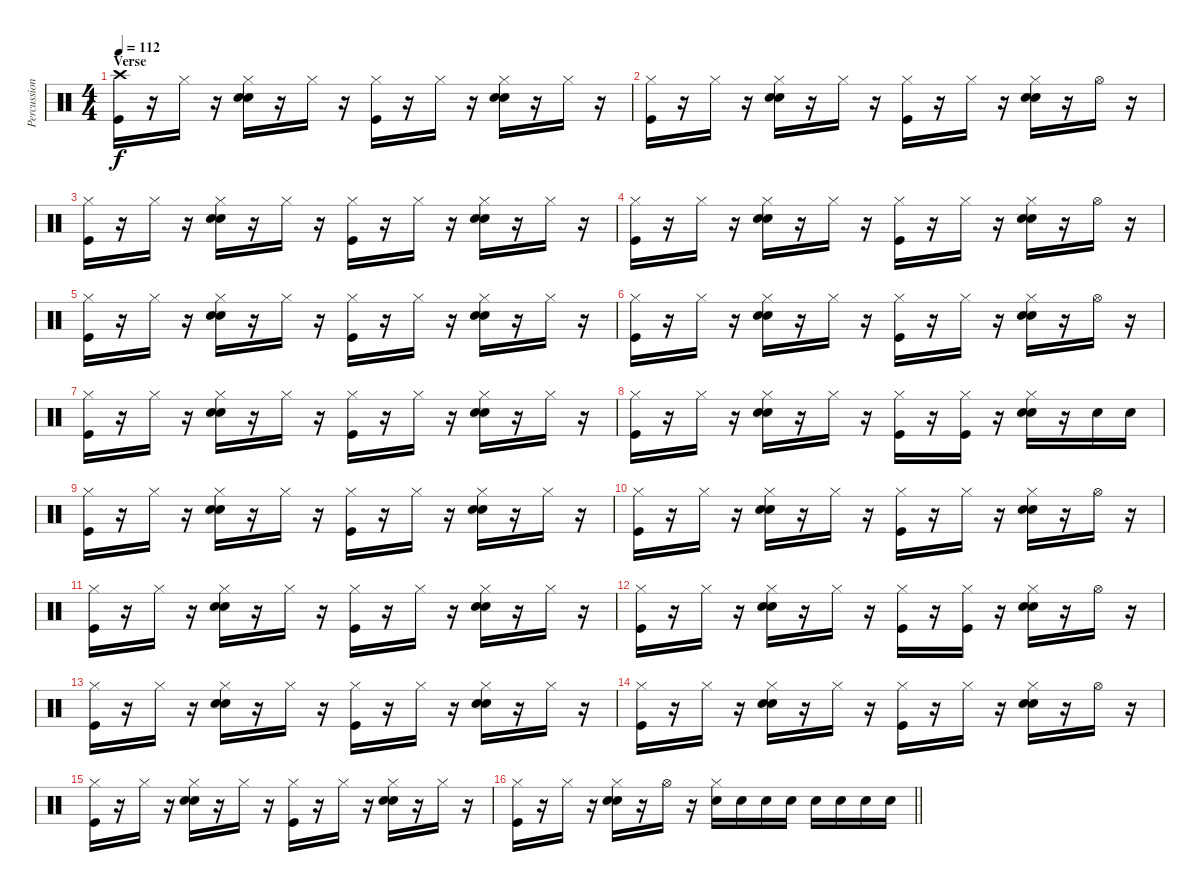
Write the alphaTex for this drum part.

\track ("Percussion" "Percussion") {instrument percussion}
\staff {score}
\articulation defaults
\ts (4 4)
\section ("" "Verse")
\tempo 112
\clef neutral
\ks c
("Crash high (hit)" "Kick (hit)").16{dy f} r.16 "Hi-Hat (closed)".16 r.16 ("Hi-Hat (closed)" "Hand Clap (hit)" "Snare (hit) 2").16 r.16 "Hi-Hat (closed)".16 r.16 ("Hi-Hat (closed)" "Kick (hit)").16 r.16 "Hi-Hat (closed)".16 r.16 ("Hi-Hat (closed)" "Hand Clap (hit)" "Snare (hit) 2").16 r.16 "Hi-Hat (closed)".16 r.16 |
("Hi-Hat (closed)" "Kick (hit)").16 r.16 "Hi-Hat (closed)".16 r.16 ("Hi-Hat (closed)" "Hand Clap (hit)" "Snare (hit) 2").16 r.16 "Hi-Hat (closed)".16 r.16 ("Hi-Hat (closed)" "Kick (hit)").16 r.16 "Hi-Hat (closed)".16 r.16 ("Hi-Hat (closed)" "Hand Clap (hit)" "Snare (hit) 2").16 r.16 "Hi-Hat (open)".16 r.16 |
("Hi-Hat (closed)" "Kick (hit)").16 r.16 "Hi-Hat (closed)".16 r.16 ("Hi-Hat (closed)" "Hand Clap (hit)" "Snare (hit) 2").16 r.16 "Hi-Hat (closed)".16 r.16 ("Hi-Hat (closed)" "Kick (hit)").16 r.16 "Hi-Hat (closed)".16 r.16 ("Hi-Hat (closed)" "Hand Clap (hit)" "Snare (hit) 2").16 r.16 "Hi-Hat (closed)".16 r.16 |
("Hi-Hat (closed)" "Kick (hit)").16 r.16 "Hi-Hat (closed)".16 r.16 ("Hi-Hat (closed)" "Hand Clap (hit)" "Snare (hit) 2").16 r.16 "Hi-Hat (closed)".16 r.16 ("Hi-Hat (closed)" "Kick (hit)").16 r.16 "Hi-Hat (closed)".16 r.16 ("Hi-Hat (closed)" "Hand Clap (hit)" "Snare (hit) 2").16 r.16 "Hi-Hat (open)".16 r.16 |
("Hi-Hat (closed)" "Kick (hit)").16 r.16 "Hi-Hat (closed)".16 r.16 ("Hi-Hat (closed)" "Hand Clap (hit)" "Snare (hit) 2").16 r.16 "Hi-Hat (closed)".16 r.16 ("Hi-Hat (closed)" "Kick (hit)").16 r.16 "Hi-Hat (closed)".16 r.16 ("Hi-Hat (closed)" "Hand Clap (hit)" "Snare (hit) 2").16 r.16 "Hi-Hat (closed)".16 r.16 |
("Hi-Hat (closed)" "Kick (hit)").16 r.16 "Hi-Hat (closed)".16 r.16 ("Hi-Hat (closed)" "Hand Clap (hit)" "Snare (hit) 2").16 r.16 "Hi-Hat (closed)".16 r.16 ("Hi-Hat (closed)" "Kick (hit)").16 r.16 "Hi-Hat (closed)".16 r.16 ("Hi-Hat (closed)" "Hand Clap (hit)" "Snare (hit) 2").16 r.16 "Hi-Hat (open)".16 r.16 |
("Hi-Hat (closed)" "Kick (hit)").16 r.16 "Hi-Hat (closed)".16 r.16 ("Hi-Hat (closed)" "Hand Clap (hit)" "Snare (hit) 2").16 r.16 "Hi-Hat (closed)".16 r.16 ("Hi-Hat (closed)" "Kick (hit)").16 r.16 "Hi-Hat (closed)".16 r.16 ("Hi-Hat (closed)" "Hand Clap (hit)" "Snare (hit) 2").16 r.16 "Hi-Hat (closed)".16 r.16 |
("Hi-Hat (closed)" "Kick (hit)").16 r.16 "Hi-Hat (closed)".16 r.16 ("Hi-Hat (closed)" "Hand Clap (hit)" "Snare (hit) 2").16 r.16 "Hi-Hat (closed)".16 r.16 ("Hi-Hat (closed)" "Kick (hit)").16 r.16 ("Hi-Hat (closed)" "Kick (hit)").16 r.16 ("Hi-Hat (closed)" "Hand Clap (hit)" "Snare (hit) 2").16 r.16 "Snare (hit) 2".16 "Snare (hit) 2".16 |
("Hi-Hat (closed)" "Kick (hit)").16 r.16 "Hi-Hat (closed)".16 r.16 ("Hi-Hat (closed)" "Hand Clap (hit)" "Snare (hit) 2").16 r.16 "Hi-Hat (closed)".16 r.16 ("Hi-Hat (closed)" "Kick (hit)").16 r.16 "Hi-Hat (closed)".16 r.16 ("Hi-Hat (closed)" "Hand Clap (hit)" "Snare (hit) 2").16 r.16 "Hi-Hat (closed)".16 r.16 |
("Hi-Hat (closed)" "Kick (hit)").16 r.16 "Hi-Hat (closed)".16 r.16 ("Hi-Hat (closed)" "Hand Clap (hit)" "Snare (hit) 2").16 r.16 "Hi-Hat (closed)".16 r.16 ("Hi-Hat (closed)" "Kick (hit)").16 r.16 "Hi-Hat (closed)".16 r.16 ("Hi-Hat (closed)" "Hand Clap (hit)" "Snare (hit) 2").16 r.16 "Hi-Hat (open)".16 r.16 |
("Hi-Hat (closed)" "Kick (hit)").16 r.16 "Hi-Hat (closed)".16 r.16 ("Hi-Hat (closed)" "Hand Clap (hit)" "Snare (hit) 2").16 r.16 "Hi-Hat (closed)".16 r.16 ("Hi-Hat (closed)" "Kick (hit)").16 r.16 "Hi-Hat (closed)".16 r.16 ("Hi-Hat (closed)" "Hand Clap (hit)" "Snare (hit) 2").16 r.16 "Hi-Hat (closed)".16 r.16 |
("Hi-Hat (closed)" "Kick (hit)").16 r.16 "Hi-Hat (closed)".16 r.16 ("Hi-Hat (closed)" "Hand Clap (hit)" "Snare (hit) 2").16 r.16 "Hi-Hat (closed)".16 r.16 ("Hi-Hat (closed)" "Kick (hit)").16 r.16 ("Hi-Hat (closed)" "Kick (hit)").16 r.16 ("Hi-Hat (closed)" "Hand Clap (hit)" "Snare (hit) 2").16 r.16 "Hi-Hat (open)".16 r.16 |
("Hi-Hat (closed)" "Kick (hit)").16 r.16 "Hi-Hat (closed)".16 r.16 ("Hi-Hat (closed)" "Hand Clap (hit)" "Snare (hit) 2").16 r.16 "Hi-Hat (closed)".16 r.16 ("Hi-Hat (closed)" "Kick (hit)").16 r.16 "Hi-Hat (closed)".16 r.16 ("Hi-Hat (closed)" "Hand Clap (hit)" "Snare (hit) 2").16 r.16 "Hi-Hat (closed)".16 r.16 |
("Hi-Hat (closed)" "Kick (hit)").16 r.16 "Hi-Hat (closed)".16 r.16 ("Hi-Hat (closed)" "Hand Clap (hit)" "Snare (hit) 2").16 r.16 "Hi-Hat (closed)".16 r.16 ("Hi-Hat (closed)" "Kick (hit)").16 r.16 "Hi-Hat (closed)".16 r.16 ("Hi-Hat (closed)" "Hand Clap (hit)" "Snare (hit) 2").16 r.16 "Hi-Hat (open)".16 r.16 |
("Hi-Hat (closed)" "Kick (hit)").16 r.16 "Hi-Hat (closed)".16 r.16 ("Hi-Hat (closed)" "Hand Clap (hit)" "Snare (hit) 2").16 r.16 "Hi-Hat (closed)".16 r.16 ("Hi-Hat (closed)" "Kick (hit)").16 r.16 "Hi-Hat (closed)".16 r.16 ("Hi-Hat (closed)" "Hand Clap (hit)" "Snare (hit) 2").16 r.16 "Hi-Hat (closed)".16 r.16 |
\barLineRight lightlight
("Hi-Hat (closed)" "Kick (hit)").16 r.16 "Hi-Hat (closed)".16 r.16 ("Hi-Hat (closed)" "Hand Clap (hit)" "Snare (hit) 2").16 r.16 "Hi-Hat (open)".16 r.16 ("Hi-Hat (closed)" "Snare (hit) 2").16 "Snare (hit) 2".16 "Snare (hit) 2".16 "Snare (hit) 2".16 "Snare (hit) 2".16 "Snare (hit) 2".16 "Snare (hit) 2".16 "Snare (hit) 2".16
